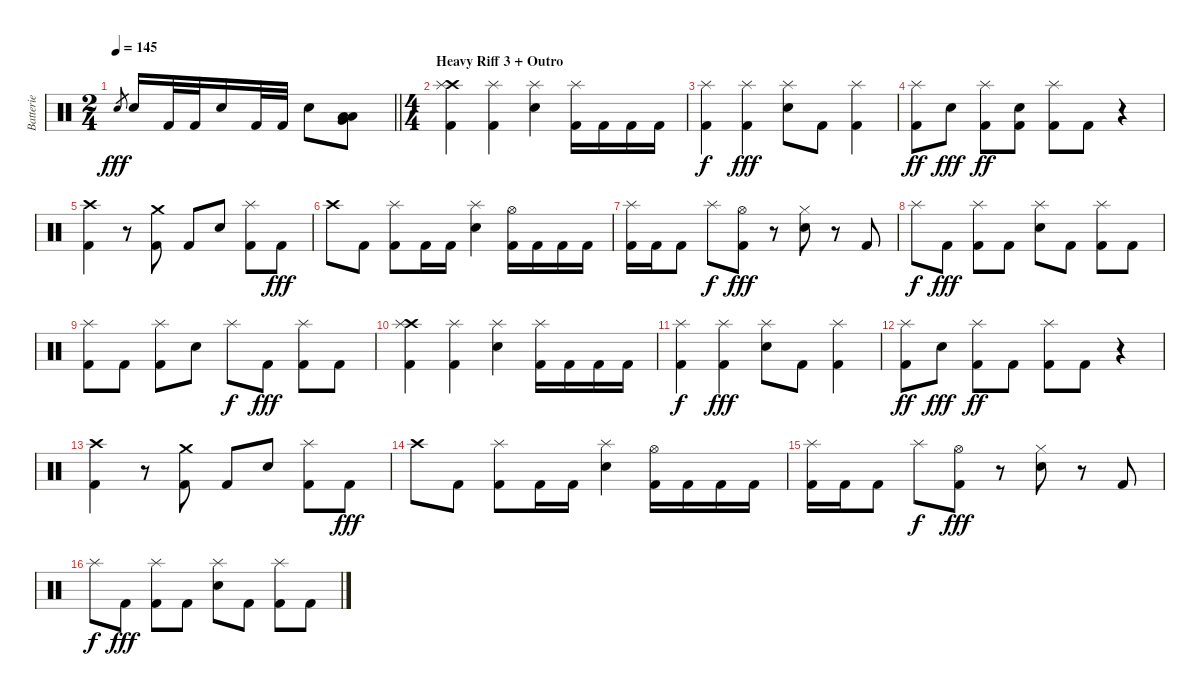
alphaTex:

\track ("Batterie" "Batterie") {instrument percussion}
\staff {score}
\articulation defaults
\ts (2 4)
\tempo 145
\clef neutral
\barLineRight lightlight
\ks c "Electric Snare (hit)".8{gr dy fff} "Electric Snare (hit)".16 "Kick (hit) 2".32 "Kick (hit) 2".32 "Electric Snare (hit)".16 "Kick (hit) 2".32 "Kick (hit) 2".32 "Electric Snare (hit)".8
("Low Tom (hit)" "Very Low Tom (hit)" "Low Floor Tom (hit)").8 |
\ts (4 4)
\section ("" "Heavy Riff 3 + Outro")
("Crash high (hit)" "Splash (hit)" "Kick (hit) 2").4 ("Splash (hit)" "Kick (hit) 2").4 ("Splash (hit)" "Electric Snare (hit)").4 ("Splash (hit)" "Kick (hit) 2").16 "Kick (hit) 2".16 "Kick (hit) 2".16 "Kick (hit) 2".16 |
("Splash (hit)" "Kick (hit) 2").4{dy f} ("Splash (hit)" "Kick (hit) 2").4{dy fff} ("Splash (hit)" "Electric Snare (hit)").8 "Kick (hit) 2".8 ("Splash (hit)" "Kick (hit) 2").4 |
("Splash (hit)" "Kick (hit) 2").8{dy ff} "Electric Snare (hit)".8{dy fff} ("Splash (hit)" "Kick (hit) 2").8{dy ff} ("Electric Snare (hit)" "Kick (hit) 2").8 ("Splash (hit)" "Kick (hit) 2").8 "Kick (hit) 2".8 r.4 |
("Crash high (hit)" "Kick (hit) 2").4 r.8 ("Crash medium (hit)" "Kick (hit) 2").8 "Kick (hit) 2".8 "Electric Snare (hit)".8 ("Splash (hit)" "Kick (hit) 2").8 "Kick (hit) 2".8{dy fff} |
"Crash high (hit)".8 "Kick (hit) 2".8 ("Splash (hit)" "Kick (hit) 2").8 "Kick (hit) 2".16 "Kick (hit) 2".16 ("Splash (hit)" "Electric Snare (hit)").4 ("Hi-Hat (open)" "Kick (hit) 2").16 "Kick (hit) 2".16 "Kick (hit) 2".16 "Kick (hit) 2".16 |
("Splash (hit)" "Kick (hit) 2").16 "Kick (hit) 2".16 "Kick (hit) 2".8 "Splash (hit)".8{dy f} ("Hi-Hat (open)" "Kick (hit) 2").8{dy fff} r.8 ("Hi-Hat (closed)" "Electric Snare (hit)").8 r.8 "Kick (hit) 2".8 |
"Splash (hit)".8{dy f} "Kick (hit) 2".8{dy fff} ("Splash (hit)" "Kick (hit) 2").8 "Kick (hit) 2".8 ("Splash (hit)" "Electric Snare (hit)").8 "Kick (hit) 2".8 ("Splash (hit)" "Kick (hit) 2").8 "Kick (hit) 2".8 |
("Splash (hit)" "Kick (hit) 2").8 "Kick (hit) 2".8 ("Splash (hit)" "Kick (hit) 2").8 "Electric Snare (hit)".8 "Splash (hit)".8{dy f} "Kick (hit) 2".8{dy fff} ("Splash (hit)" "Kick (hit) 2").8 "Kick (hit) 2".8 |
("Crash high (hit)" "Splash (hit)" "Kick (hit) 2").4 ("Splash (hit)" "Kick (hit) 2").4 ("Splash (hit)" "Electric Snare (hit)").4 ("Splash (hit)" "Kick (hit) 2").16 "Kick (hit) 2".16 "Kick (hit) 2".16 "Kick (hit) 2".16 |
("Splash (hit)" "Kick (hit) 2").4{dy f} ("Splash (hit)" "Kick (hit) 2").4{dy fff} ("Splash (hit)" "Electric Snare (hit)").8 "Kick (hit) 2".8 ("Splash (hit)" "Kick (hit) 2").4 |
("Splash (hit)" "Kick (hit) 2").8{dy ff} "Electric Snare (hit)".8{dy fff} ("Splash (hit)" "Kick (hit) 2").8{dy ff} "Kick (hit) 2".8 ("Splash (hit)" "Kick (hit) 2").8 "Kick (hit) 2".8 r.4 |
("Crash high (hit)" "Kick (hit) 2").4 r.8 ("Crash medium (hit)" "Kick (hit) 2").8 "Kick (hit) 2".8 "Electric Snare (hit)".8 ("Splash (hit)" "Kick (hit) 2").8 "Kick (hit) 2".8{dy fff} |
"Crash high (hit)".8 "Kick (hit) 2".8 ("Splash (hit)" "Kick (hit) 2").8 "Kick (hit) 2".16 "Kick (hit) 2".16 ("Splash (hit)" "Electric Snare (hit)").4 ("Hi-Hat (open)" "Kick (hit) 2").16 "Kick (hit) 2".16 "Kick (hit) 2".16 "Kick (hit) 2".16 |
("Splash (hit)" "Kick (hit) 2").16 "Kick (hit) 2".16 "Kick (hit) 2".8 "Splash (hit)".8{dy f} ("Hi-Hat (open)" "Kick (hit) 2").8{dy fff} r.8 ("Hi-Hat (closed)" "Electric Snare (hit)").8 r.8 "Kick (hit) 2".8 |
"Splash (hit)".8{dy f} "Kick (hit) 2".8{dy fff} ("Splash (hit)" "Kick (hit) 2").8 "Kick (hit) 2".8 ("Splash (hit)" "Electric Snare (hit)").8 "Kick (hit) 2".8 ("Splash (hit)" "Kick (hit) 2").8 "Kick (hit) 2".8
